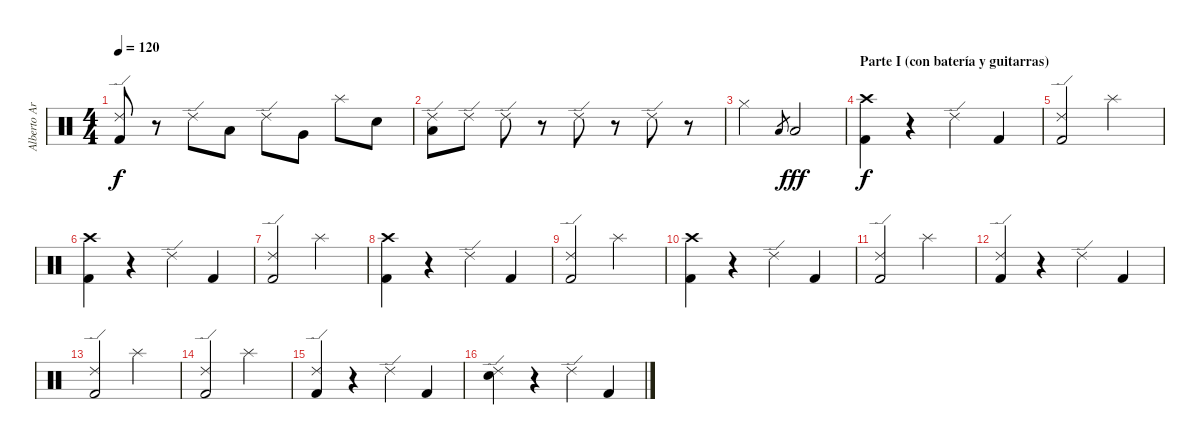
\track ("Alberto Ardines (Batería)" "Alberto Ar") {instrument percussion}
\staff {score}
\articulation defaults
\ts (4 4)
\tempo 120
\clef neutral
\ks c
("Ride (edge) 2" "Kick (hit) 2").8{dy f} r.8 "Ride (edge) 2".8 "Low Tom (hit)".8 "Ride (edge) 2".8 "Very Low Tom (hit)".8 "Splash (hit)".8 "Electric Snare (hit)".8 |
("Ride (edge) 2" "Low Floor Tom (hit)").8 "Ride (edge) 2".8 "Ride (edge) 2".8 r.8 "Ride (edge) 2".8 r.8 "Ride (edge) 2".8 r.8 |
"Hi-Hat (closed)".2 "Low Floor Tom (hit)".8{gr} "Low Floor Tom (hit)".2{dy fff} |
\section ("" "Parte I (con batería y guitarras)")
("Crash high (hit)" "Kick (hit) 2").4{dy f} r.4 "Ride (edge) 2".4 "Kick (hit) 2".4 |
("Ride (edge) 2" "Kick (hit) 2").2 "Splash (hit)".2 |
("Crash high (hit)" "Kick (hit) 2").4 r.4 "Ride (edge) 2".4 "Kick (hit) 2".4 |
("Ride (edge) 2" "Kick (hit) 2").2 "Splash (hit)".2 |
("Crash high (hit)" "Kick (hit) 2").4 r.4 "Ride (edge) 2".4 "Kick (hit) 2".4 |
("Ride (edge) 2" "Kick (hit) 2").2 "Splash (hit)".2 |
("Crash high (hit)" "Kick (hit) 2").4 r.4 "Ride (edge) 2".4 "Kick (hit) 2".4 |
("Ride (edge) 2" "Kick (hit) 2").2 "Splash (hit)".2 |
("Ride (edge) 2" "Kick (hit) 2").4 r.4 "Ride (edge) 2".4 "Kick (hit) 2".4 |
("Ride (edge) 2" "Kick (hit) 2").2 "Splash (hit)".2 |
("Ride (edge) 2" "Kick (hit) 2").2 "Splash (hit)".2 |
("Ride (edge) 2" "Kick (hit) 2").4 r.4 "Ride (edge) 2".4 "Kick (hit) 2".4 |
("Ride (edge) 2" "Electric Snare (hit)").4 r.4 "Ride (edge) 2".4 "Kick (hit) 2".4
